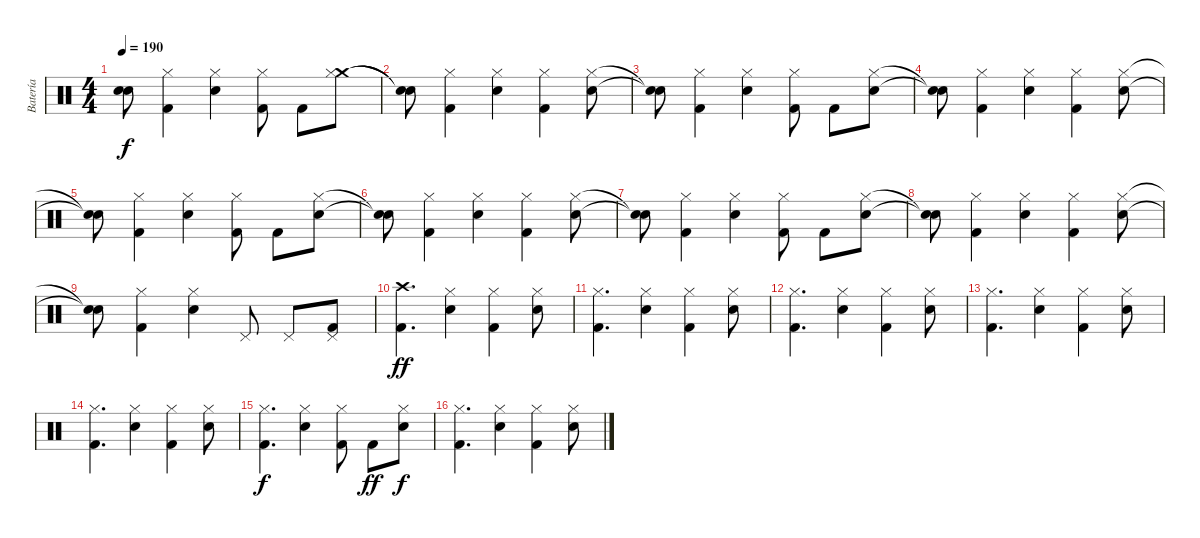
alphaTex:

\track ("Batería" "Batería") {instrument percussion}
\staff {score}
\articulation defaults
\ts (4 4)
\tempo 190
\clef neutral
\ks c
("Snare (hit)"{t} "Snare (hit)"{t}).8{dy f} ("Kick (hit) 2" "Hi-Hat (closed)").4 ("Electric Snare (hit)" "Hi-Hat (closed)").4 ("Kick (hit) 2" "Hi-Hat (closed)").8 "Kick (hit) 2".8 ("Crash medium (hit)" "Hi-Hat (closed)").8 |
("Snare (hit)"{t} "Snare (hit)"{t}).8 ("Kick (hit) 2" "Hi-Hat (closed)").4 ("Electric Snare (hit)" "Hi-Hat (closed)").4 ("Kick (hit) 2" "Hi-Hat (closed)").4 ("Electric Snare (hit)" "Hi-Hat (closed)").8 |
("Snare (hit)"{t} "Snare (hit)"{t}).8 ("Kick (hit) 2" "Hi-Hat (closed)").4 ("Electric Snare (hit)" "Hi-Hat (closed)").4 ("Kick (hit) 2" "Hi-Hat (closed)").8 "Kick (hit) 2".8 ("Electric Snare (hit)" "Hi-Hat (closed)").8 |
("Snare (hit)"{t} "Snare (hit)"{t}).8 ("Kick (hit) 2" "Hi-Hat (closed)").4 ("Electric Snare (hit)" "Hi-Hat (closed)").4 ("Kick (hit) 2" "Hi-Hat (closed)").4 ("Electric Snare (hit)" "Hi-Hat (closed)").8 |
("Snare (hit)"{t} "Snare (hit)"{t}).8 ("Kick (hit) 2" "Hi-Hat (closed)").4 ("Electric Snare (hit)" "Hi-Hat (closed)").4 ("Kick (hit) 2" "Hi-Hat (closed)").8 "Kick (hit) 2".8 ("Electric Snare (hit)" "Hi-Hat (closed)").8 |
("Snare (hit)"{t} "Snare (hit)"{t}).8 ("Kick (hit) 2" "Hi-Hat (closed)").4 ("Electric Snare (hit)" "Hi-Hat (closed)").4 ("Kick (hit) 2" "Hi-Hat (closed)").4 ("Electric Snare (hit)" "Hi-Hat (closed)").8 |
("Snare (hit)"{t} "Snare (hit)"{t}).8 ("Kick (hit) 2" "Hi-Hat (closed)").4 ("Electric Snare (hit)" "Hi-Hat (closed)").4 ("Kick (hit) 2" "Hi-Hat (closed)").8 "Kick (hit) 2".8 ("Electric Snare (hit)" "Hi-Hat (closed)").8 |
("Snare (hit)"{t} "Snare (hit)"{t}).8 ("Kick (hit) 2" "Hi-Hat (closed)").4 ("Electric Snare (hit)" "Hi-Hat (closed)").4 ("Kick (hit) 2" "Hi-Hat (closed)").4 ("Electric Snare (hit)" "Hi-Hat (closed)").8 |
("Snare (hit)"{t} "Snare (hit)"{t}).8 ("Kick (hit) 2" "Hi-Hat (closed)").4 ("Electric Snare (hit)" "Hi-Hat (closed)").4 "Pedal Hi-Hat (hit)".8 "Pedal Hi-Hat (hit)".8 ("Pedal Hi-Hat (hit)" "Kick (hit) 2").8 |
("Crash high (hit)" "Kick (hit) 2").4{d dy ff} ("Electric Snare (hit)" "Hi-Hat (closed)").4 ("Kick (hit) 2" "Hi-Hat (closed)").4 ("Electric Snare (hit)" "Hi-Hat (closed)").8 |
("Kick (hit) 2" "Hi-Hat (closed)").4{d} ("Electric Snare (hit)" "Hi-Hat (closed)").4 ("Kick (hit) 2" "Hi-Hat (closed)").4 ("Electric Snare (hit)" "Hi-Hat (closed)").8 |
("Kick (hit) 2" "Hi-Hat (closed)").4{d} ("Electric Snare (hit)" "Hi-Hat (closed)").4 ("Kick (hit) 2" "Hi-Hat (closed)").4 ("Electric Snare (hit)" "Hi-Hat (closed)").8 |
("Kick (hit) 2" "Hi-Hat (closed)").4{d} ("Electric Snare (hit)" "Hi-Hat (closed)").4 ("Kick (hit) 2" "Hi-Hat (closed)").4 ("Electric Snare (hit)" "Hi-Hat (closed)").8 |
("Kick (hit) 2" "Hi-Hat (closed)").4{d} ("Electric Snare (hit)" "Hi-Hat (closed)").4 ("Kick (hit) 2" "Hi-Hat (closed)").4 ("Electric Snare (hit)" "Hi-Hat (closed)").8 |
("Kick (hit) 2" "Hi-Hat (closed)").4{d dy f} ("Electric Snare (hit)" "Hi-Hat (closed)").4 ("Kick (hit) 2" "Hi-Hat (closed)").8 "Kick (hit) 2".8{dy ff} ("Electric Snare (hit)" "Hi-Hat (closed)").8{dy f} |
("Kick (hit) 2" "Hi-Hat (closed)").4{d} ("Electric Snare (hit)" "Hi-Hat (closed)").4 ("Kick (hit) 2" "Hi-Hat (closed)").4 ("Electric Snare (hit)" "Hi-Hat (closed)").8
